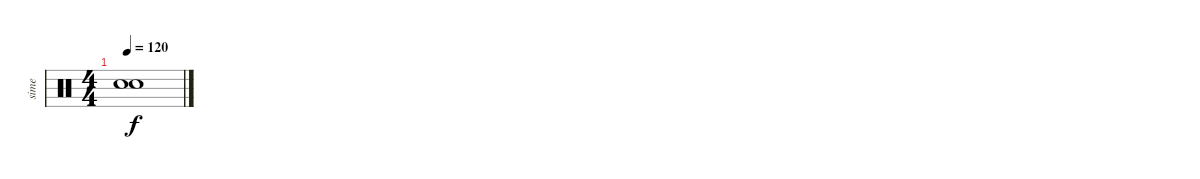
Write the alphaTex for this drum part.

\track ("sime" "sime") {instrument percussion}
\staff {score}
\articulation defaults
\ts (4 4)
\tempo 120
\clef neutral
\ks c
("Snare (hit)"{t} "Snare (hit)"{t}).1{dy f}
